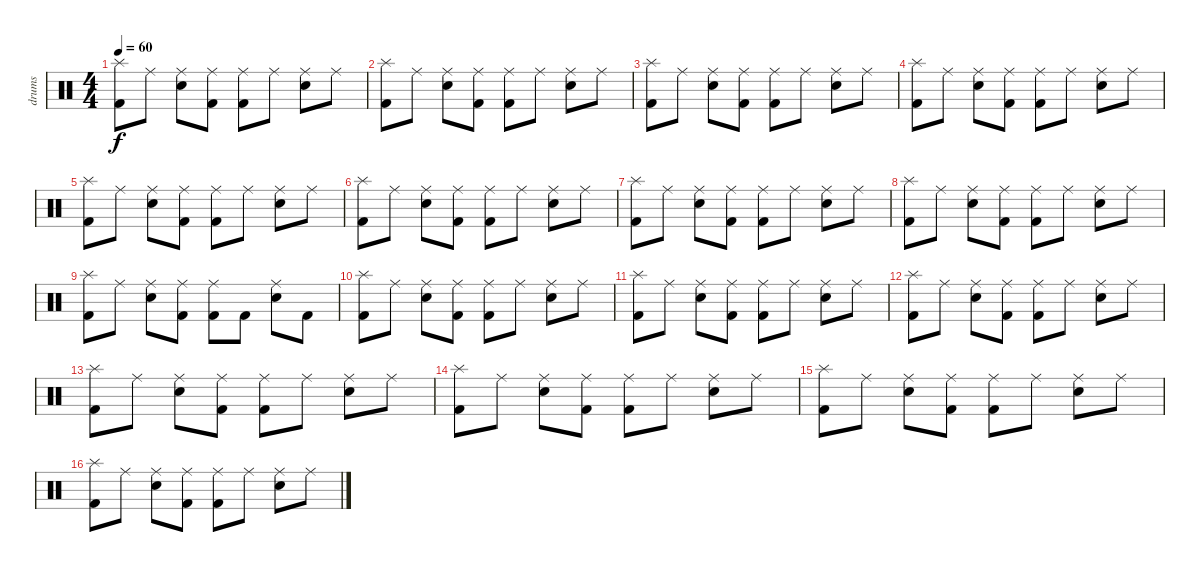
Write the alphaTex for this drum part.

\track ("drums" "drums") {instrument percussion}
\staff {score}
\articulation defaults
\ts (4 4)
\tempo 60
\clef neutral
\ks c
("Splash (hit)" "Kick (hit) 2").8{dy f} "Ride (middle)".8 ("Ride (middle)" "Electric Snare (hit)").8 ("Ride (middle)" "Kick (hit) 2").8 ("Ride (middle)" "Kick (hit) 2").8 "Ride (middle)".8 ("Ride (middle)" "Electric Snare (hit)").8 "Ride (middle)".8 |
("Splash (hit)" "Kick (hit) 2").8 "Ride (middle)".8 ("Ride (middle)" "Electric Snare (hit)").8 ("Ride (middle)" "Kick (hit) 2").8 ("Ride (middle)" "Kick (hit) 2").8 "Ride (middle)".8 ("Ride (middle)" "Electric Snare (hit)").8 "Ride (middle)".8 |
("Splash (hit)" "Kick (hit) 2").8 "Ride (middle)".8 ("Ride (middle)" "Electric Snare (hit)").8 ("Ride (middle)" "Kick (hit) 2").8 ("Ride (middle)" "Kick (hit) 2").8 "Ride (middle)".8 ("Ride (middle)" "Electric Snare (hit)").8 "Ride (middle)".8 |
("Splash (hit)" "Kick (hit) 2").8 "Ride (middle)".8 ("Ride (middle)" "Electric Snare (hit)").8 ("Ride (middle)" "Kick (hit) 2").8 ("Ride (middle)" "Kick (hit) 2").8 "Ride (middle)".8 ("Ride (middle)" "Electric Snare (hit)").8 "Ride (middle)".8 |
("Splash (hit)" "Kick (hit) 2").8 "Ride (middle)".8 ("Ride (middle)" "Electric Snare (hit)").8 ("Ride (middle)" "Kick (hit) 2").8 ("Ride (middle)" "Kick (hit) 2").8 "Ride (middle)".8 ("Ride (middle)" "Electric Snare (hit)").8 "Ride (middle)".8 |
("Splash (hit)" "Kick (hit) 2").8 "Ride (middle)".8 ("Ride (middle)" "Electric Snare (hit)").8 ("Ride (middle)" "Kick (hit) 2").8 ("Ride (middle)" "Kick (hit) 2").8 "Ride (middle)".8 ("Ride (middle)" "Electric Snare (hit)").8 "Ride (middle)".8 |
("Splash (hit)" "Kick (hit) 2").8 "Ride (middle)".8 ("Ride (middle)" "Electric Snare (hit)").8 ("Ride (middle)" "Kick (hit) 2").8 ("Ride (middle)" "Kick (hit) 2").8 "Ride (middle)".8 ("Ride (middle)" "Electric Snare (hit)").8 "Ride (middle)".8 |
("Splash (hit)" "Kick (hit) 2").8 "Ride (middle)".8 ("Ride (middle)" "Electric Snare (hit)").8 ("Ride (middle)" "Kick (hit) 2").8 ("Ride (middle)" "Kick (hit) 2").8 "Ride (middle)".8 ("Ride (middle)" "Electric Snare (hit)").8 "Ride (middle)".8 |
("Splash (hit)" "Kick (hit) 2").8 "Ride (middle)".8 ("Ride (middle)" "Electric Snare (hit)").8 ("Ride (middle)" "Kick (hit) 2").8 ("Ride (middle)" "Kick (hit) 2").8 "Kick (hit) 2".8 ("Ride (middle)" "Electric Snare (hit)").8 "Kick (hit) 2".8 |
("Splash (hit)" "Kick (hit) 2").8 "Ride (middle)".8 ("Ride (middle)" "Electric Snare (hit)").8 ("Ride (middle)" "Kick (hit) 2").8 ("Ride (middle)" "Kick (hit) 2").8 "Ride (middle)".8 ("Ride (middle)" "Electric Snare (hit)").8 "Ride (middle)".8 |
("Splash (hit)" "Kick (hit) 2").8 "Ride (middle)".8 ("Ride (middle)" "Electric Snare (hit)").8 ("Ride (middle)" "Kick (hit) 2").8 ("Ride (middle)" "Kick (hit) 2").8 "Ride (middle)".8 ("Ride (middle)" "Electric Snare (hit)").8 "Ride (middle)".8 |
("Splash (hit)" "Kick (hit) 2").8 "Ride (middle)".8 ("Ride (middle)" "Electric Snare (hit)").8 ("Ride (middle)" "Kick (hit) 2").8 ("Ride (middle)" "Kick (hit) 2").8 "Ride (middle)".8 ("Ride (middle)" "Electric Snare (hit)").8 "Ride (middle)".8 |
("Splash (hit)" "Kick (hit) 2").8 "Ride (middle)".8 ("Ride (middle)" "Electric Snare (hit)").8 ("Ride (middle)" "Kick (hit) 2").8 ("Ride (middle)" "Kick (hit) 2").8 "Ride (middle)".8 ("Ride (middle)" "Electric Snare (hit)").8 "Ride (middle)".8 |
("Splash (hit)" "Kick (hit) 2").8 "Ride (middle)".8 ("Ride (middle)" "Electric Snare (hit)").8 ("Ride (middle)" "Kick (hit) 2").8 ("Ride (middle)" "Kick (hit) 2").8 "Ride (middle)".8 ("Ride (middle)" "Electric Snare (hit)").8 "Ride (middle)".8 |
("Splash (hit)" "Kick (hit) 2").8 "Ride (middle)".8 ("Ride (middle)" "Electric Snare (hit)").8 ("Ride (middle)" "Kick (hit) 2").8 ("Ride (middle)" "Kick (hit) 2").8 "Ride (middle)".8 ("Ride (middle)" "Electric Snare (hit)").8 "Ride (middle)".8 |
("Splash (hit)" "Kick (hit) 2").8 "Ride (middle)".8 ("Ride (middle)" "Electric Snare (hit)").8 ("Ride (middle)" "Kick (hit) 2").8 ("Ride (middle)" "Kick (hit) 2").8 "Ride (middle)".8 ("Ride (middle)" "Electric Snare (hit)").8 "Ride (middle)".8
